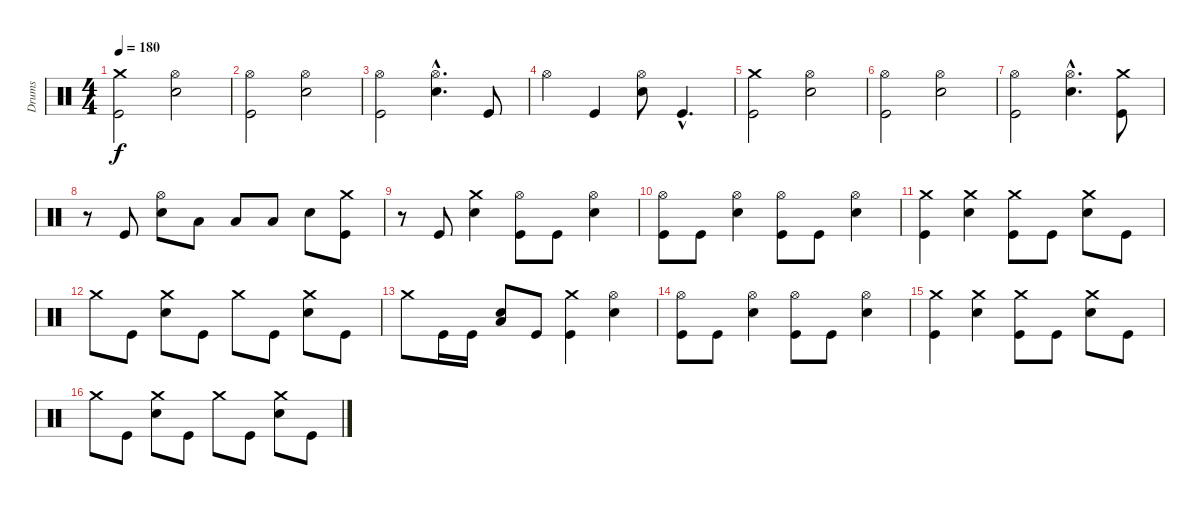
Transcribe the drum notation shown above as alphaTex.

\track ("Drums" "Drums") {instrument percussion}
\staff {score}
\articulation defaults
\ts (4 4)
\tempo 180
\clef neutral
\ks c
("Crash medium (hit)" "Kick (hit)").2{dy f} ("Hi-Hat (open)" "Electric Snare (hit)").2 |
("Hi-Hat (open)" "Kick (hit)").2 ("Hi-Hat (open)" "Electric Snare (hit)").2 |
("Hi-Hat (open)" "Kick (hit)").2 ("Hi-Hat (open)"{hac} "Electric Snare (hit)"{hac}).4{d} "Kick (hit)".8 |
"Hi-Hat (open)".4 "Kick (hit)".4 ("Hi-Hat (open)" "Electric Snare (hit)").8 "Kick (hit)"{hac}.4{d} |
("Crash medium (hit)" "Kick (hit)").2 ("Hi-Hat (open)" "Electric Snare (hit)").2 |
("Hi-Hat (open)" "Kick (hit)").2 ("Hi-Hat (open)" "Electric Snare (hit)").2 |
("Hi-Hat (open)" "Kick (hit)").2 ("Hi-Hat (open)"{hac} "Electric Snare (hit)"{hac}).4{d} ("Crash medium (hit)" "Kick (hit)").8 |
r.8 "Kick (hit)".8 ("Hi-Hat (open)" "Electric Snare (hit)").8 "Low Tom (hit)".8 "Low Tom (hit)".8 "Low Tom (hit)".8 "Electric Snare (hit)".8 ("Crash medium (hit)" "Kick (hit)").8 |
r.8 "Kick (hit)".8 ("Crash medium (hit)" "Electric Snare (hit)").4 ("Hi-Hat (open)" "Kick (hit)").8 "Kick (hit)".8 ("Hi-Hat (open)" "Electric Snare (hit)").4 |
("Hi-Hat (open)" "Kick (hit)").8 "Kick (hit)".8 ("Hi-Hat (open)" "Electric Snare (hit)").4 ("Hi-Hat (open)" "Kick (hit)").8 "Kick (hit)".8 ("Hi-Hat (open)" "Electric Snare (hit)").4 |
("Crash medium (hit)" "Kick (hit)").4 ("Crash medium (hit)" "Electric Snare (hit)").4 ("Crash medium (hit)" "Kick (hit)").8 "Kick (hit)".8 ("Crash medium (hit)" "Electric Snare (hit)").8 "Kick (hit)".8 |
"Crash medium (hit)".8 "Kick (hit)".8 ("Crash medium (hit)" "Electric Snare (hit)").8 "Kick (hit)".8 "Crash medium (hit)".8 "Kick (hit)".8 ("Crash medium (hit)" "Electric Snare (hit)").8 "Kick (hit)".8 |
"Crash medium (hit)".8 "Kick (hit)".16 "Kick (hit)".16 ("Low Floor Tom (hit)" "Electric Snare (hit)").8 "Kick (hit)".8 ("Crash medium (hit)" "Kick (hit)").4 ("Hi-Hat (open)" "Electric Snare (hit)").4 |
("Hi-Hat (open)" "Kick (hit)").8 "Kick (hit)".8 ("Hi-Hat (open)" "Electric Snare (hit)").4 ("Hi-Hat (open)" "Kick (hit)").8 "Kick (hit)".8 ("Hi-Hat (open)" "Electric Snare (hit)").4 |
("Crash medium (hit)" "Kick (hit)").4 ("Crash medium (hit)" "Electric Snare (hit)").4 ("Crash medium (hit)" "Kick (hit)").8 "Kick (hit)".8 ("Crash medium (hit)" "Electric Snare (hit)").8 "Kick (hit)".8 |
"Crash medium (hit)".8 "Kick (hit)".8 ("Crash medium (hit)" "Electric Snare (hit)").8 "Kick (hit)".8 "Crash medium (hit)".8 "Kick (hit)".8 ("Crash medium (hit)" "Electric Snare (hit)").8 "Kick (hit)".8
